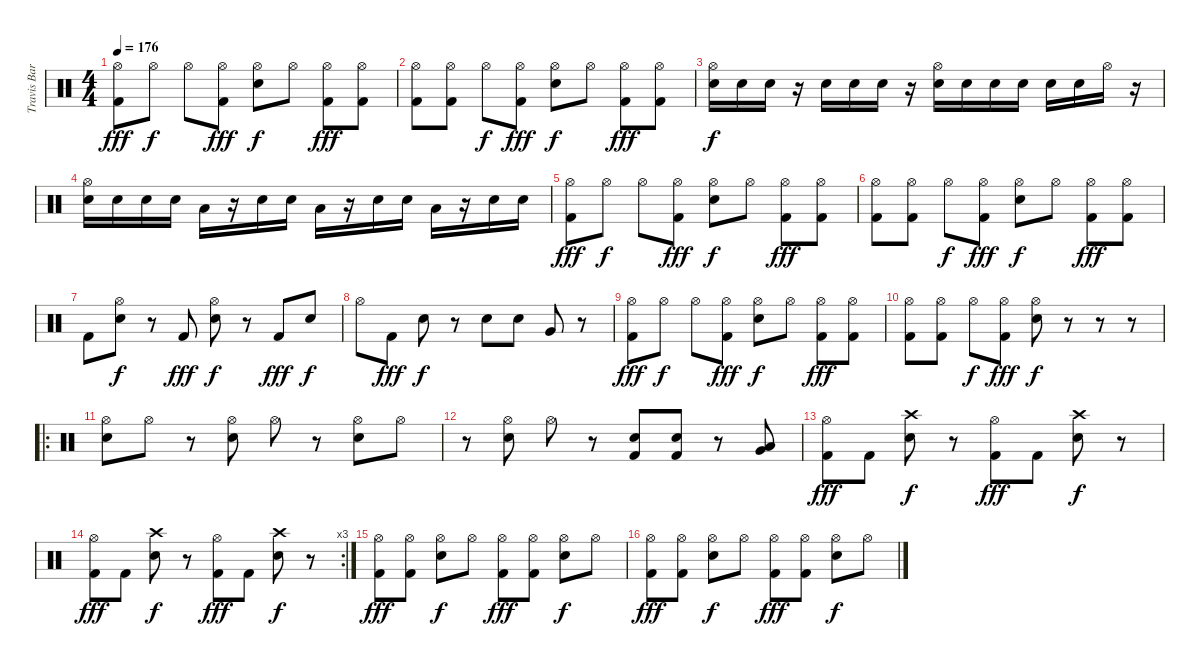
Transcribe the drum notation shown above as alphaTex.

\track ("Travis Barker - Drums" "Travis Bar") {instrument percussion}
\staff {score}
\articulation defaults
\ts (4 4)
\tempo 176
\clef neutral
\ks c
("Kick (hit) 2" "Hi-Hat (open)").8{dy fff} "Hi-Hat (open)".8{dy f} "Hi-Hat (open)".8 ("Kick (hit) 2" "Hi-Hat (open)").8{dy fff} ("Snare (hit) 2" "Hi-Hat (open)").8{dy f} "Hi-Hat (open)".8 ("Kick (hit) 2" "Hi-Hat (open)").8{dy fff} ("Kick (hit) 2" "Hi-Hat (open)").8 |
("Kick (hit) 2" "Hi-Hat (open)").8 ("Kick (hit) 2" "Hi-Hat (open)").8 "Hi-Hat (open)".8{dy f} ("Kick (hit) 2" "Hi-Hat (open)").8{dy fff} ("Snare (hit) 2" "Hi-Hat (open)").8{dy f} "Hi-Hat (open)".8 ("Kick (hit) 2" "Hi-Hat (open)").8{dy fff} ("Kick (hit) 2" "Hi-Hat (open)").8 |
("Snare (hit) 2" "Hi-Hat (open)").16{dy f} "Snare (hit) 2".16 "Snare (hit) 2".16 r.16 "Snare (hit) 2".16 "Snare (hit) 2".16 "Snare (hit) 2".16 r.16 ("Snare (hit) 2" "Hi-Hat (open)").16 "Snare (hit) 2".16 "Snare (hit) 2".16 "Snare (hit) 2".16 "Snare (hit) 2".16 "Snare (hit) 2".16 "Hi-Hat (open)".16 r.16 |
("Snare (hit) 2" "Hi-Hat (open)").16 "Snare (hit) 2".16 "Snare (hit) 2".16 "Snare (hit) 2".16 "Low Tom (hit)".16 r.16 "Snare (hit) 2".16 "Snare (hit) 2".16 "Low Tom (hit)".16 r.16 "Snare (hit) 2".16 "Snare (hit) 2".16 "Low Tom (hit)".16 r.16 "Snare (hit) 2".16 "Snare (hit) 2".16 |
("Kick (hit) 2" "Hi-Hat (open)").8{dy fff} "Hi-Hat (open)".8{dy f} "Hi-Hat (open)".8 ("Kick (hit) 2" "Hi-Hat (open)").8{dy fff} ("Snare (hit) 2" "Hi-Hat (open)").8{dy f} "Hi-Hat (open)".8 ("Kick (hit) 2" "Hi-Hat (open)").8{dy fff} ("Kick (hit) 2" "Hi-Hat (open)").8 |
("Kick (hit) 2" "Hi-Hat (open)").8 ("Kick (hit) 2" "Hi-Hat (open)").8 "Hi-Hat (open)".8{dy f} ("Kick (hit) 2" "Hi-Hat (open)").8{dy fff} ("Snare (hit) 2" "Hi-Hat (open)").8{dy f} "Hi-Hat (open)".8 ("Kick (hit) 2" "Hi-Hat (open)").8{dy fff} ("Kick (hit) 2" "Hi-Hat (open)").8 |
"Kick (hit) 2".8 ("Snare (hit) 2" "Hi-Hat (open)").8{dy f} r.8 "Kick (hit) 2".8{dy fff} ("Snare (hit) 2" "Hi-Hat (open)").8{dy f} r.8 "Kick (hit) 2".8{dy fff} "Snare (hit) 2".8{dy f} |
"Hi-Hat (open)".8 "Kick (hit) 2".8{dy fff} "Snare (hit) 2".8{dy f} r.8 "Snare (hit) 2".8 "Snare (hit) 2".8 "Very Low Tom (hit)".8 r.8 |
("Kick (hit) 2" "Hi-Hat (open)").8{dy fff} "Hi-Hat (open)".8{dy f} "Hi-Hat (open)".8 ("Kick (hit) 2" "Hi-Hat (open)").8{dy fff} ("Snare (hit) 2" "Hi-Hat (open)").8{dy f} "Hi-Hat (open)".8 ("Kick (hit) 2" "Hi-Hat (open)").8{dy fff} ("Kick (hit) 2" "Hi-Hat (open)").8 |
("Kick (hit) 2" "Hi-Hat (open)").8 ("Kick (hit) 2" "Hi-Hat (open)").8 "Hi-Hat (open)".8{dy f} ("Kick (hit) 2" "Hi-Hat (open)").8{dy fff} ("Snare (hit) 2" "Hi-Hat (open)").8{dy f} r.8 r.8 r.8 |
\ro
("Snare (hit) 2" "Hi-Hat (open)").8 "Hi-Hat (open)".8 r.8 ("Snare (hit) 2" "Hi-Hat (open)").8 "Hi-Hat (open)".8 r.8 ("Snare (hit) 2" "Hi-Hat (open)").8 "Hi-Hat (open)".8 |
r.8 ("Snare (hit) 2" "Hi-Hat (open)").8 "Hi-Hat (open)".8 r.8 ("Kick (hit) 2" "Snare (hit) 2").8 ("Kick (hit) 2" "Snare (hit) 2").8 r.8 ("Very Low Tom (hit)" "Low Tom (hit)").8 |
("Kick (hit) 2" "Hi-Hat (open)").8{dy fff} "Kick (hit) 2".8 ("Snare (hit) 2" "Crash high (hit)").8{dy f} r.8 ("Kick (hit) 2" "Hi-Hat (open)").8{dy fff} "Kick (hit) 2".8 ("Snare (hit) 2" "Crash high (hit)").8{dy f} r.8 |
\rc 3
("Kick (hit) 2" "Hi-Hat (open)").8{dy fff} "Kick (hit) 2".8 ("Snare (hit) 2" "Crash high (hit)").8{dy f} r.8 ("Kick (hit) 2" "Hi-Hat (open)").8{dy fff} "Kick (hit) 2".8 ("Snare (hit) 2" "Crash high (hit)").8{dy f} r.8 |
("Kick (hit) 2" "Hi-Hat (open)").8{dy fff} ("Kick (hit) 2" "Hi-Hat (open)").8 ("Snare (hit) 2" "Hi-Hat (open)").8{dy f} "Hi-Hat (open)".8 ("Kick (hit) 2" "Hi-Hat (open)").8{dy fff} ("Kick (hit) 2" "Hi-Hat (open)").8 ("Snare (hit) 2" "Hi-Hat (open)").8{dy f} "Hi-Hat (open)".8 |
("Kick (hit) 2" "Hi-Hat (open)").8{dy fff} ("Kick (hit) 2" "Hi-Hat (open)").8 ("Snare (hit) 2" "Hi-Hat (open)").8{dy f} "Hi-Hat (open)".8 ("Kick (hit) 2" "Hi-Hat (open)").8{dy fff} ("Kick (hit) 2" "Hi-Hat (open)").8 ("Snare (hit) 2" "Hi-Hat (open)").8{dy f} "Hi-Hat (open)".8
